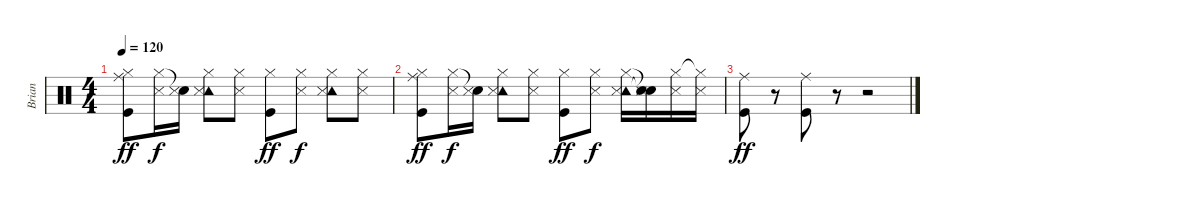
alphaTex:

\track ("Brian" "Brian") {instrument percussion}
\staff {score}
\articulation defaults
\ts (4 4)
\tempo 120
\clef neutral
\ks c
("Ride (middle)" "Hi-Hat (closed)" "Kick (hit)").8{dy ff} ("Hi-Hat (closed)" "Snare (side stick) 3").16{dy f} ("Snare (hit)"{t} "Snare (side stick) 3").16 ("Tambourine (hit)" "Hi-Hat (closed)" "Snare (side stick) 3").8 ("Hi-Hat (closed)" "Snare (side stick) 3").8 ("Hi-Hat (closed)" "Kick (hit)").8{dy ff} ("Hi-Hat (closed)" "Snare (side stick) 3").8{dy f} ("Tambourine (hit)" "Hi-Hat (closed)" "Snare (side stick) 3").8 ("Hi-Hat (closed)" "Snare (side stick) 3").8 |
("Ride (middle)" "Hi-Hat (closed)" "Kick (hit)").8{dy ff} ("Hi-Hat (closed)" "Snare (side stick) 3").16{dy f} ("Snare (hit)"{t} "Snare (side stick) 3").16 ("Tambourine (hit)" "Hi-Hat (closed)" "Snare (side stick) 3").8 ("Hi-Hat (closed)" "Snare (side stick) 3").8 ("Hi-Hat (closed)" "Kick (hit)").8{dy ff} ("Hi-Hat (closed)" "Snare (side stick) 3").8{dy f} ("Tambourine (hit)" "Hi-Hat (closed)" "Snare (side stick) 3").16 ("Snare (hit)"{t} "Snare (hit)"{t} "Snare (side stick) 3").16 ("Hi-Hat (closed)" "Snare (side stick) 3").16 ("Hi-Hat (closed)"{t} "Snare (side stick) 3").16 |
("Ride (middle)" "Kick (hit)").8{dy ff} r.8 ("Ride (middle)" "Kick (hit)").8 r.8 r.2
